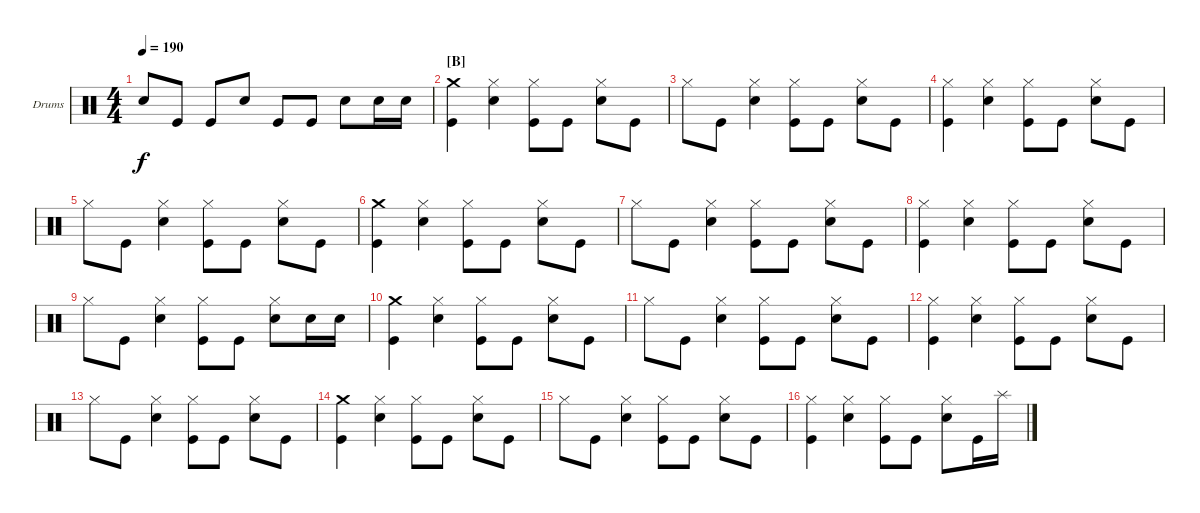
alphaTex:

\bracketExtendMode groupsimilarinstruments
\firstSystemTrackNameOrientation horizontal
\otherSystemsTrackNameOrientation horizontal
\track ("Drums" "Drums") {instrument percussion}
\staff {score}
\articulation defaults
\ts (4 4)
\tempo 190
\clef neutral
\scale
0.333333
\ks c "Snare (hit) 2".8{dy f} "Kick (hit)".8 "Kick (hit)".8 "Snare (hit) 2".8 "Kick (hit)".8 "Kick (hit)".8 "Snare (hit) 2".8 "Snare (hit) 2".16 "Snare (hit) 2".16
|
\section ("B" "")
\scale
0.333333 ("Crash medium (hit)" "Kick (hit)").4 ("Hi-Hat (closed)" "Snare (hit) 2").4 ("Hi-Hat (closed)" "Kick (hit)").8 "Kick (hit)".8 ("Hi-Hat (closed)" "Snare (hit) 2").8 "Kick (hit)".8 |
"Hi-Hat (closed)".8 "Kick (hit)".8 ("Hi-Hat (closed)" "Snare (hit) 2").4 ("Hi-Hat (closed)" "Kick (hit)").8 "Kick (hit)".8 ("Hi-Hat (closed)" "Snare (hit) 2").8 "Kick (hit)".8 |
("Kick (hit)" "Hi-Hat (closed)").4 ("Hi-Hat (closed)" "Snare (hit) 2").4 ("Hi-Hat (closed)" "Kick (hit)").8 "Kick (hit)".8 ("Hi-Hat (closed)" "Snare (hit) 2").8 "Kick (hit)".8 |
"Hi-Hat (closed)".8 "Kick (hit)".8 ("Hi-Hat (closed)" "Snare (hit) 2").4 ("Hi-Hat (closed)" "Kick (hit)").8 "Kick (hit)".8 ("Hi-Hat (closed)" "Snare (hit) 2").8 "Kick (hit)".8 |
("Crash medium (hit)" "Kick (hit)").4 ("Hi-Hat (closed)" "Snare (hit) 2").4 ("Hi-Hat (closed)" "Kick (hit)").8 "Kick (hit)".8 ("Hi-Hat (closed)" "Snare (hit) 2").8 "Kick (hit)".8 |
"Hi-Hat (closed)".8 "Kick (hit)".8 ("Hi-Hat (closed)" "Snare (hit) 2").4 ("Hi-Hat (closed)" "Kick (hit)").8 "Kick (hit)".8 ("Hi-Hat (closed)" "Snare (hit) 2").8 "Kick (hit)".8 |
("Kick (hit)" "Hi-Hat (closed)").4 ("Hi-Hat (closed)" "Snare (hit) 2").4 ("Hi-Hat (closed)" "Kick (hit)").8 "Kick (hit)".8 ("Hi-Hat (closed)" "Snare (hit) 2").8 "Kick (hit)".8 |
"Hi-Hat (closed)".8 "Kick (hit)".8 ("Hi-Hat (closed)" "Snare (hit) 2").4 ("Hi-Hat (closed)" "Kick (hit)").8 "Kick (hit)".8 ("Hi-Hat (closed)" "Snare (hit) 2").8 "Snare (hit) 2".16 "Snare (hit) 2".16 |
("Crash medium (hit)" "Kick (hit)").4 ("Hi-Hat (closed)" "Snare (hit) 2").4 ("Hi-Hat (closed)" "Kick (hit)").8 "Kick (hit)".8 ("Hi-Hat (closed)" "Snare (hit) 2").8 "Kick (hit)".8 |
"Hi-Hat (closed)".8 "Kick (hit)".8 ("Hi-Hat (closed)" "Snare (hit) 2").4 ("Hi-Hat (closed)" "Kick (hit)").8 "Kick (hit)".8 ("Hi-Hat (closed)" "Snare (hit) 2").8 "Kick (hit)".8 |
("Kick (hit)" "Hi-Hat (closed)").4 ("Hi-Hat (closed)" "Snare (hit) 2").4 ("Hi-Hat (closed)" "Kick (hit)").8 "Kick (hit)".8 ("Hi-Hat (closed)" "Snare (hit) 2").8 "Kick (hit)".8 |
"Hi-Hat (closed)".8 "Kick (hit)".8 ("Hi-Hat (closed)" "Snare (hit) 2").4 ("Hi-Hat (closed)" "Kick (hit)").8 "Kick (hit)".8 ("Hi-Hat (closed)" "Snare (hit) 2").8 "Kick (hit)".8 |
("Crash medium (hit)" "Kick (hit)").4 ("Hi-Hat (closed)" "Snare (hit) 2").4 ("Hi-Hat (closed)" "Kick (hit)").8 "Kick (hit)".8 ("Hi-Hat (closed)" "Snare (hit) 2").8 "Kick (hit)".8 |
"Hi-Hat (closed)".8 "Kick (hit)".8 ("Hi-Hat (closed)" "Snare (hit) 2").4 ("Hi-Hat (closed)" "Kick (hit)").8 "Kick (hit)".8 ("Hi-Hat (closed)" "Snare (hit) 2").8 "Kick (hit)".8 |
("Kick (hit)" "Hi-Hat (closed)").4 ("Hi-Hat (closed)" "Snare (hit) 2").4 ("Hi-Hat (closed)" "Kick (hit)").8 "Kick (hit)".8 ("Hi-Hat (closed)" "Snare (hit) 2").8 "Kick (hit)".16 "Splash (hit)".16
